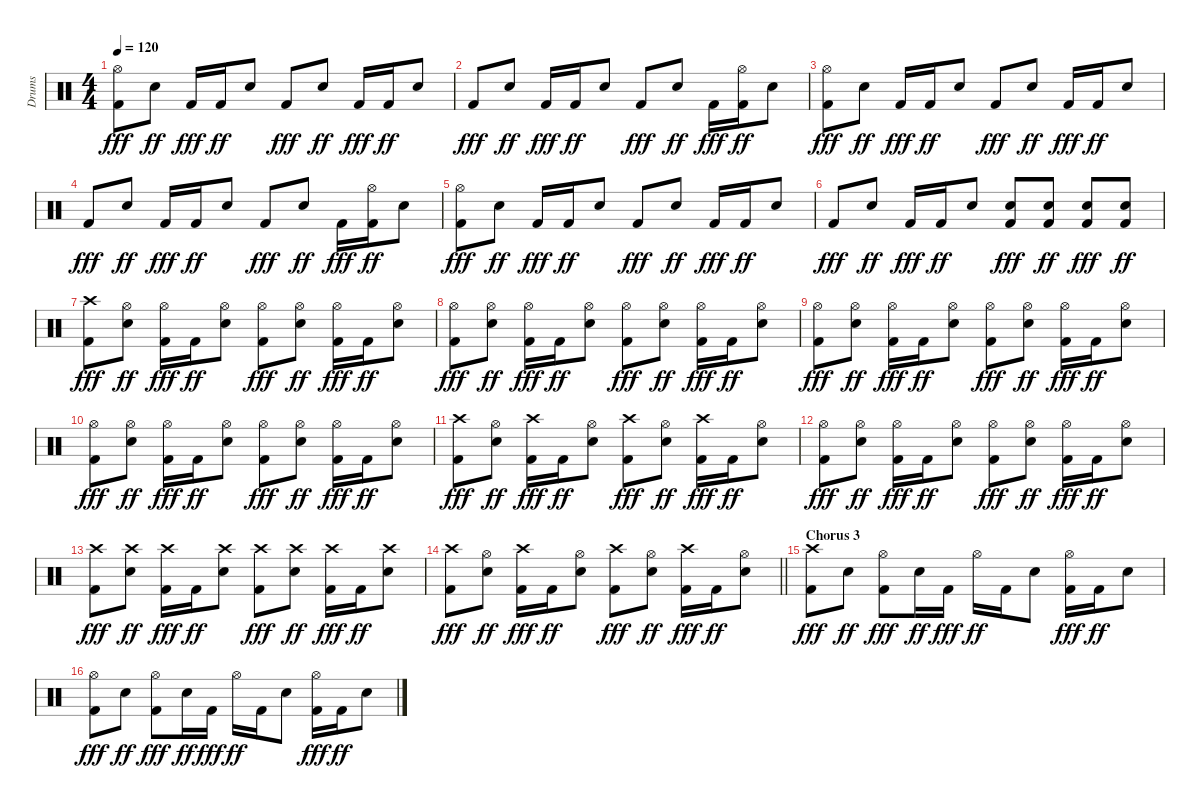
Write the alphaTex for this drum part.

\track ("Drums" "Drums") {instrument percussion}
\staff {score}
\articulation defaults
\ts (4 4)
\tempo 120
\clef neutral
\ks c
("Hi-Hat (open)" "Kick (hit) 2").8{dy fff} "Snare (hit) 2".8{dy ff} "Kick (hit) 2".16{dy fff} "Kick (hit) 2".16{dy ff} "Snare (hit) 2".8 "Kick (hit) 2".8{dy fff} "Snare (hit) 2".8{dy ff} "Kick (hit) 2".16{dy fff} "Kick (hit) 2".16{dy ff} "Snare (hit) 2".8 |
"Kick (hit) 2".8{dy fff} "Snare (hit) 2".8{dy ff} "Kick (hit) 2".16{dy fff} "Kick (hit) 2".16{dy ff} "Snare (hit) 2".8 "Kick (hit) 2".8{dy fff} "Snare (hit) 2".8{dy ff} "Kick (hit) 2".16{dy fff} ("Hi-Hat (open)" "Kick (hit) 2").16{dy ff} "Snare (hit) 2".8 |
("Hi-Hat (open)" "Kick (hit) 2").8{dy fff} "Snare (hit) 2".8{dy ff} "Kick (hit) 2".16{dy fff} "Kick (hit) 2".16{dy ff} "Snare (hit) 2".8 "Kick (hit) 2".8{dy fff} "Snare (hit) 2".8{dy ff} "Kick (hit) 2".16{dy fff} "Kick (hit) 2".16{dy ff} "Snare (hit) 2".8 |
"Kick (hit) 2".8{dy fff} "Snare (hit) 2".8{dy ff} "Kick (hit) 2".16{dy fff} "Kick (hit) 2".16{dy ff} "Snare (hit) 2".8 "Kick (hit) 2".8{dy fff} "Snare (hit) 2".8{dy ff} "Kick (hit) 2".16{dy fff} ("Hi-Hat (open)" "Kick (hit) 2").16{dy ff} "Snare (hit) 2".8 |
("Hi-Hat (open)" "Kick (hit) 2").8{dy fff} "Snare (hit) 2".8{dy ff} "Kick (hit) 2".16{dy fff} "Kick (hit) 2".16{dy ff} "Snare (hit) 2".8 "Kick (hit) 2".8{dy fff} "Snare (hit) 2".8{dy ff} "Kick (hit) 2".16{dy fff} "Kick (hit) 2".16{dy ff} "Snare (hit) 2".8 |
"Kick (hit) 2".8{dy fff} "Snare (hit) 2".8{dy ff} "Kick (hit) 2".16{dy fff} "Kick (hit) 2".16{dy ff} "Snare (hit) 2".8 ("Snare (hit) 2" "Kick (hit) 2").8{dy fff} ("Snare (hit) 2" "Kick (hit) 2").8{dy ff} ("Snare (hit) 2" "Kick (hit) 2").8{dy fff} ("Snare (hit) 2" "Kick (hit) 2").8{dy ff} |
("Crash high (hit)" "Kick (hit) 2").8{dy fff} ("Hi-Hat (open)" "Snare (hit) 2").8{dy ff} ("Hi-Hat (open)" "Kick (hit) 2").16{dy fff} "Kick (hit) 2".16{dy ff} ("Hi-Hat (open)" "Snare (hit) 2").8 ("Hi-Hat (open)" "Kick (hit) 2").8{dy fff} ("Hi-Hat (open)" "Snare (hit) 2").8{dy ff} ("Hi-Hat (open)" "Kick (hit) 2").16{dy fff} "Kick (hit) 2".16{dy ff} ("Hi-Hat (open)" "Snare (hit) 2").8 |
("Hi-Hat (open)" "Kick (hit) 2").8{dy fff} ("Hi-Hat (open)" "Snare (hit) 2").8{dy ff} ("Hi-Hat (open)" "Kick (hit) 2").16{dy fff} "Kick (hit) 2".16{dy ff} ("Hi-Hat (open)" "Snare (hit) 2").8 ("Hi-Hat (open)" "Kick (hit) 2").8{dy fff} ("Hi-Hat (open)" "Snare (hit) 2").8{dy ff} ("Hi-Hat (open)" "Kick (hit) 2").16{dy fff} "Kick (hit) 2".16{dy ff} ("Hi-Hat (open)" "Snare (hit) 2").8 |
("Hi-Hat (open)" "Kick (hit) 2").8{dy fff} ("Hi-Hat (open)" "Snare (hit) 2").8{dy ff} ("Hi-Hat (open)" "Kick (hit) 2").16{dy fff} "Kick (hit) 2".16{dy ff} ("Hi-Hat (open)" "Snare (hit) 2").8 ("Hi-Hat (open)" "Kick (hit) 2").8{dy fff} ("Hi-Hat (open)" "Snare (hit) 2").8{dy ff} ("Hi-Hat (open)" "Kick (hit) 2").16{dy fff} "Kick (hit) 2".16{dy ff} ("Hi-Hat (open)" "Snare (hit) 2").8 |
("Hi-Hat (open)" "Kick (hit) 2").8{dy fff} ("Hi-Hat (open)" "Snare (hit) 2").8{dy ff} ("Hi-Hat (open)" "Kick (hit) 2").16{dy fff} "Kick (hit) 2".16{dy ff} ("Hi-Hat (open)" "Snare (hit) 2").8 ("Hi-Hat (open)" "Kick (hit) 2").8{dy fff} ("Hi-Hat (open)" "Snare (hit) 2").8{dy ff} ("Hi-Hat (open)" "Kick (hit) 2").16{dy fff} "Kick (hit) 2".16{dy ff} ("Hi-Hat (open)" "Snare (hit) 2").8 |
("Crash high (hit)" "Kick (hit) 2").8{dy fff} ("Hi-Hat (open)" "Snare (hit) 2").8{dy ff} ("Crash high (hit)" "Kick (hit) 2").16{dy fff} "Kick (hit) 2".16{dy ff} ("Hi-Hat (open)" "Snare (hit) 2").8 ("Crash high (hit)" "Kick (hit) 2").8{dy fff} ("Hi-Hat (open)" "Snare (hit) 2").8{dy ff} ("Crash high (hit)" "Kick (hit) 2").16{dy fff} "Kick (hit) 2".16{dy ff} ("Hi-Hat (open)" "Snare (hit) 2").8 |
("Hi-Hat (open)" "Kick (hit) 2").8{dy fff} ("Hi-Hat (open)" "Snare (hit) 2").8{dy ff} ("Hi-Hat (open)" "Kick (hit) 2").16{dy fff} "Kick (hit) 2".16{dy ff} ("Hi-Hat (open)" "Snare (hit) 2").8 ("Hi-Hat (open)" "Kick (hit) 2").8{dy fff} ("Hi-Hat (open)" "Snare (hit) 2").8{dy ff} ("Hi-Hat (open)" "Kick (hit) 2").16{dy fff} "Kick (hit) 2".16{dy ff} ("Hi-Hat (open)" "Snare (hit) 2").8 |
("Crash high (hit)" "Kick (hit) 2").8{dy fff} ("Crash high (hit)" "Snare (hit) 2").8{dy ff} ("Crash high (hit)" "Kick (hit) 2").16{dy fff} "Kick (hit) 2".16{dy ff} ("Crash high (hit)" "Snare (hit) 2").8 ("Crash high (hit)" "Kick (hit) 2").8{dy fff} ("Crash high (hit)" "Snare (hit) 2").8{dy ff} ("Crash high (hit)" "Kick (hit) 2").16{dy fff} "Kick (hit) 2".16{dy ff} ("Crash high (hit)" "Snare (hit) 2").8 |
\barLineRight lightlight
("Crash high (hit)" "Kick (hit) 2").8{dy fff} ("Hi-Hat (open)" "Snare (hit) 2").8{dy ff} ("Crash high (hit)" "Kick (hit) 2").16{dy fff} "Kick (hit) 2".16{dy ff} ("Hi-Hat (open)" "Snare (hit) 2").8 ("Crash high (hit)" "Kick (hit) 2").8{dy fff} ("Hi-Hat (open)" "Snare (hit) 2").8{dy ff} ("Crash high (hit)" "Kick (hit) 2").16{dy fff} "Kick (hit) 2".16{dy ff} ("Hi-Hat (open)" "Snare (hit) 2").8 |
\section ("" "Chorus 3")
("Crash high (hit)" "Kick (hit) 2").8{dy fff} "Snare (hit) 2".8{dy ff} ("Hi-Hat (open)" "Kick (hit) 2").8{dy fff} "Snare (hit) 2".16{dy ff} "Kick (hit) 2".16{dy fff} "Hi-Hat (open)".16{dy ff} "Kick (hit) 2".16 "Snare (hit) 2".8 ("Hi-Hat (open)" "Kick (hit) 2").16{dy fff} "Kick (hit) 2".16{dy ff} "Snare (hit) 2".8 |
("Hi-Hat (open)" "Kick (hit) 2").8{dy fff} "Snare (hit) 2".8{dy ff} ("Hi-Hat (open)" "Kick (hit) 2").8{dy fff} "Snare (hit) 2".16{dy ff} "Kick (hit) 2".16{dy fff} "Hi-Hat (open)".16{dy ff} "Kick (hit) 2".16 "Snare (hit) 2".8 ("Hi-Hat (open)" "Kick (hit) 2").16{dy fff} "Kick (hit) 2".16{dy ff} "Snare (hit) 2".8
